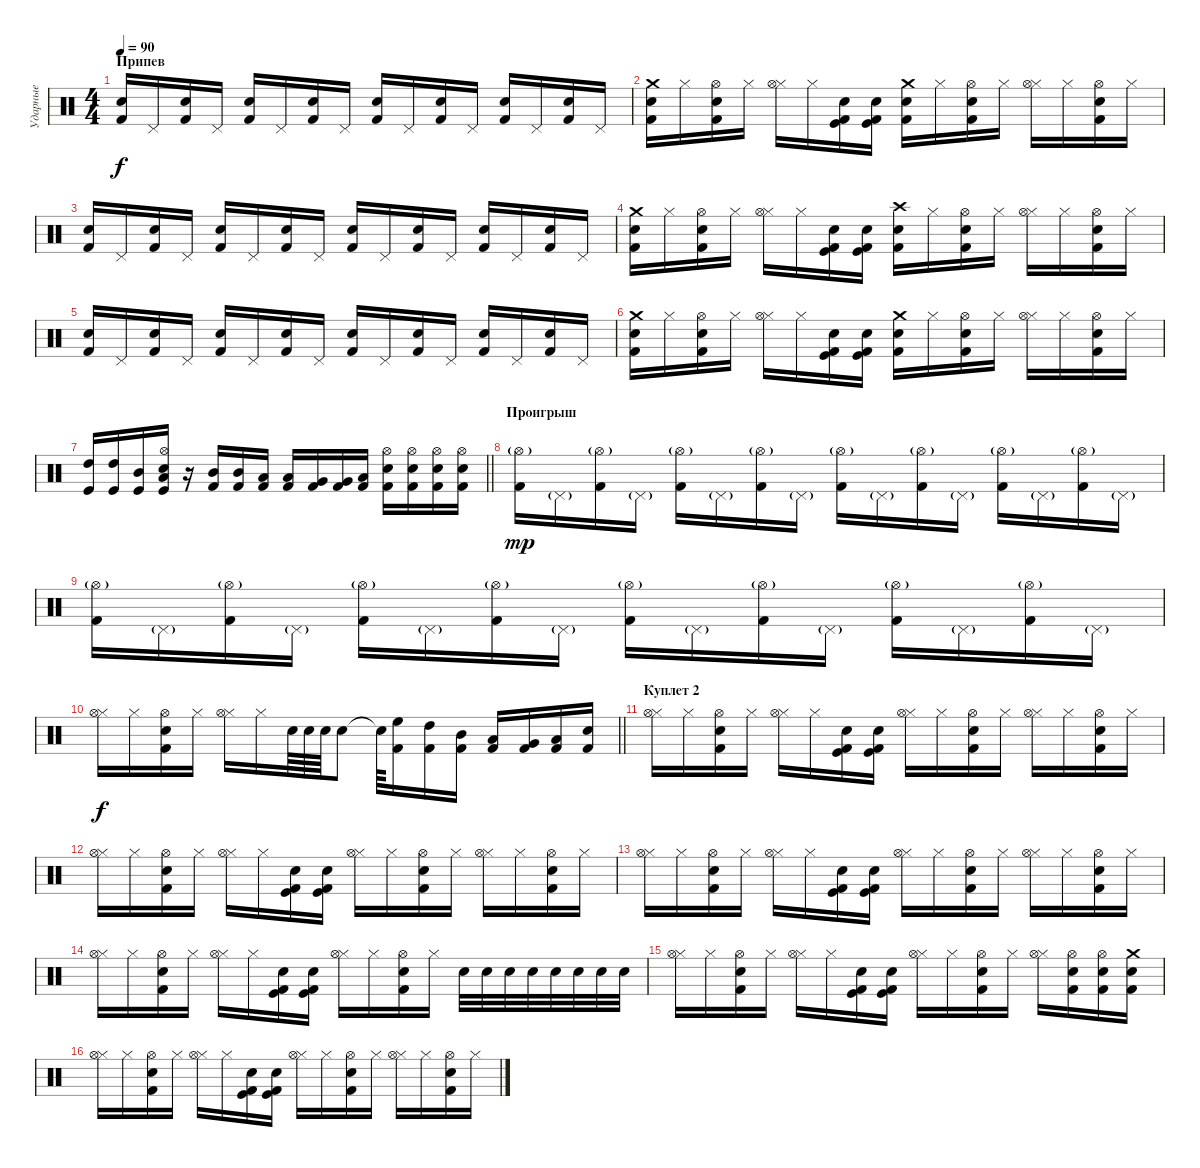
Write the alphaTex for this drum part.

\track ("Ударные" "Ударные") {instrument percussion}
\staff {score}
\articulation defaults
\ts (4 4)
\section ("" "Припев")
\tempo 90
\clef neutral
\ks c
("Electric Snare (hit)" "Kick (hit) 2").16{dy f} "Pedal Hi-Hat (hit)".16 ("Electric Snare (hit)" "Kick (hit) 2").16 "Pedal Hi-Hat (hit)".16 ("Electric Snare (hit)" "Kick (hit) 2").16 "Pedal Hi-Hat (hit)".16 ("Electric Snare (hit)" "Kick (hit) 2").16 "Pedal Hi-Hat (hit)".16 ("Electric Snare (hit)" "Kick (hit) 2").16 "Pedal Hi-Hat (hit)".16 ("Electric Snare (hit)" "Kick (hit) 2").16 "Pedal Hi-Hat (hit)".16 ("Electric Snare (hit)" "Kick (hit) 2").16 "Pedal Hi-Hat (hit)".16 ("Electric Snare (hit)" "Kick (hit) 2").16 "Pedal Hi-Hat (hit)".16 |
("Crash medium (hit)" "Kick (hit) 2" "Snare (hit) 2").16 "Hi-Hat (closed)".16 ("Snare (hit) 2" "Hi-Hat (open)" "Kick (hit) 2").16 "Hi-Hat (closed)".16 ("Hi-Hat (closed)" "Hi-Hat (open)").16 "Hi-Hat (closed)".16 ("Snare (hit) 2" "Kick (hit)" "Kick (hit) 2").16 ("Snare (hit) 2" "Kick (hit)" "Kick (hit) 2").16 ("Crash medium (hit)" "Kick (hit) 2" "Snare (hit) 2").16 "Hi-Hat (closed)".16 ("Snare (hit) 2" "Kick (hit) 2" "Hi-Hat (open)").16 "Hi-Hat (closed)".16 ("Hi-Hat (closed)" "Hi-Hat (open)").16 "Hi-Hat (closed)".16 ("Snare (hit) 2" "Kick (hit) 2" "Hi-Hat (open)").16 "Hi-Hat (closed)".16 |
("Electric Snare (hit)" "Kick (hit) 2").16 "Pedal Hi-Hat (hit)".16 ("Electric Snare (hit)" "Kick (hit) 2").16 "Pedal Hi-Hat (hit)".16 ("Electric Snare (hit)" "Kick (hit) 2").16 "Pedal Hi-Hat (hit)".16 ("Electric Snare (hit)" "Kick (hit) 2").16 "Pedal Hi-Hat (hit)".16 ("Electric Snare (hit)" "Kick (hit) 2").16 "Pedal Hi-Hat (hit)".16 ("Electric Snare (hit)" "Kick (hit) 2").16 "Pedal Hi-Hat (hit)".16 ("Electric Snare (hit)" "Kick (hit) 2").16 "Pedal Hi-Hat (hit)".16 ("Electric Snare (hit)" "Kick (hit) 2").16 "Pedal Hi-Hat (hit)".16 |
("Crash medium (hit)" "Kick (hit) 2" "Snare (hit) 2").16 "Hi-Hat (closed)".16 ("Snare (hit) 2" "Hi-Hat (open)" "Kick (hit) 2").16 "Hi-Hat (closed)".16 ("Hi-Hat (closed)" "Hi-Hat (open)").16 "Hi-Hat (closed)".16 ("Snare (hit) 2" "Kick (hit)" "Kick (hit) 2").16 ("Snare (hit) 2" "Kick (hit)" "Kick (hit) 2").16 ("Crash high (hit)" "Kick (hit) 2" "Snare (hit) 2").16 "Hi-Hat (closed)".16 ("Snare (hit) 2" "Kick (hit) 2" "Hi-Hat (open)").16 "Hi-Hat (closed)".16 ("Hi-Hat (closed)" "Hi-Hat (open)").16 "Hi-Hat (closed)".16 ("Snare (hit) 2" "Kick (hit) 2" "Hi-Hat (open)").16 "Hi-Hat (closed)".16 |
("Electric Snare (hit)" "Kick (hit) 2").16 "Pedal Hi-Hat (hit)".16 ("Electric Snare (hit)" "Kick (hit) 2").16 "Pedal Hi-Hat (hit)".16 ("Electric Snare (hit)" "Kick (hit) 2").16 "Pedal Hi-Hat (hit)".16 ("Electric Snare (hit)" "Kick (hit) 2").16 "Pedal Hi-Hat (hit)".16 ("Electric Snare (hit)" "Kick (hit) 2").16 "Pedal Hi-Hat (hit)".16 ("Electric Snare (hit)" "Kick (hit) 2").16 "Pedal Hi-Hat (hit)".16 ("Electric Snare (hit)" "Kick (hit) 2").16 "Pedal Hi-Hat (hit)".16 ("Electric Snare (hit)" "Kick (hit) 2").16 "Pedal Hi-Hat (hit)".16 |
("Crash medium (hit)" "Kick (hit) 2" "Snare (hit) 2").16 "Hi-Hat (closed)".16 ("Snare (hit) 2" "Hi-Hat (open)" "Kick (hit) 2").16 "Hi-Hat (closed)".16 ("Hi-Hat (closed)" "Hi-Hat (open)").16 "Hi-Hat (closed)".16 ("Snare (hit) 2" "Kick (hit)" "Kick (hit) 2").16 ("Snare (hit) 2" "Kick (hit)" "Kick (hit) 2").16 ("Crash medium (hit)" "Kick (hit) 2" "Snare (hit) 2").16 "Hi-Hat (closed)".16 ("Snare (hit) 2" "Kick (hit) 2" "Hi-Hat (open)").16 "Hi-Hat (closed)".16 ("Hi-Hat (closed)" "Hi-Hat (open)").16 "Hi-Hat (closed)".16 ("Snare (hit) 2" "Kick (hit) 2" "Hi-Hat (open)").16 "Hi-Hat (closed)".16 |
\barLineRight lightlight
("High Tom (hit)" "Kick (hit)").16 ("High Tom (hit)" "Kick (hit)").16 ("Mid Tom (hit)" "Kick (hit)").16 ("Hi-Hat (open)" "Low Tom (hit)" "Kick (hit)" "Electric Snare (hit)").16 r.16 ("Mid Tom (hit)" "Kick (hit) 2").16 ("Mid Tom (hit)" "Kick (hit) 2").16 ("Low Tom (hit)" "Kick (hit) 2").16 ("Low Tom (hit)" "Kick (hit) 2").16 ("Very Low Tom (hit)" "Kick (hit) 2").16 ("Very Low Tom (hit)" "Kick (hit) 2").16 ("Low Floor Tom (hit)" "Kick (hit) 2").16 ("Hi-Hat (open)" "Kick (hit) 2" "Snare (hit) 2").16 ("Hi-Hat (open)" "Kick (hit) 2" "Snare (hit) 2").16 ("Hi-Hat (open)" "Kick (hit) 2" "Snare (hit) 2").16 ("Hi-Hat (open)" "Kick (hit) 2" "Snare (hit) 2").16 |
\section ("" "Проигрыш")
("Hi-Hat (open)"{g} "Kick (hit) 2").16{dy mp} "Pedal Hi-Hat (hit)"{g}.16 ("Hi-Hat (open)"{g} "Kick (hit) 2").16 "Pedal Hi-Hat (hit)"{g}.16 ("Hi-Hat (open)"{g} "Kick (hit) 2").16 "Pedal Hi-Hat (hit)"{g}.16 ("Hi-Hat (open)"{g} "Kick (hit) 2").16 "Pedal Hi-Hat (hit)"{g}.16 ("Hi-Hat (open)"{g} "Kick (hit) 2").16 "Pedal Hi-Hat (hit)"{g}.16 ("Hi-Hat (open)"{g} "Kick (hit) 2").16 "Pedal Hi-Hat (hit)"{g}.16 ("Hi-Hat (open)"{g} "Kick (hit) 2").16 "Pedal Hi-Hat (hit)"{g}.16 ("Hi-Hat (open)"{g} "Kick (hit) 2").16 "Pedal Hi-Hat (hit)"{g}.16 |
("Hi-Hat (open)"{g} "Kick (hit) 2").16 "Pedal Hi-Hat (hit)"{g}.16 ("Hi-Hat (open)"{g} "Kick (hit) 2").16 "Pedal Hi-Hat (hit)"{g}.16 ("Hi-Hat (open)"{g} "Kick (hit) 2").16 "Pedal Hi-Hat (hit)"{g}.16 ("Hi-Hat (open)"{g} "Kick (hit) 2").16 "Pedal Hi-Hat (hit)"{g}.16 ("Hi-Hat (open)"{g} "Kick (hit) 2").16 "Pedal Hi-Hat (hit)"{g}.16 ("Hi-Hat (open)"{g} "Kick (hit) 2").16 "Pedal Hi-Hat (hit)"{g}.16 ("Hi-Hat (open)"{g} "Kick (hit) 2").16 "Pedal Hi-Hat (hit)"{g}.16 ("Hi-Hat (open)"{g} "Kick (hit) 2").16 "Pedal Hi-Hat (hit)"{g}.16 |
\barLineRight lightlight
("Hi-Hat (closed)" "Hi-Hat (open)").16{dy f} "Hi-Hat (closed)".16 ("Snare (hit) 2" "Hi-Hat (open)" "Kick (hit) 2").16 "Hi-Hat (closed)".16 ("Hi-Hat (closed)" "Hi-Hat (open)").16 "Hi-Hat (closed)".16 "Snare (hit) 2".64 "Snare (hit) 2".64 "Snare (hit) 2".64 "Snare (hit) 2".8 "Snare (hit) 2"{t}.64 ("High Floor Tom (hit)" "Kick (hit) 2").16 ("High Tom (hit)" "Kick (hit) 2").16 ("Mid Tom (hit)" "Kick (hit) 2").16 ("Low Tom (hit)" "Kick (hit) 2").16 ("Very Low Tom (hit)" "Kick (hit) 2").16 ("Kick (hit) 2" "Low Floor Tom (hit)").16 ("Kick (hit) 2" "Electric Snare (hit)").16 |
\section ("" "Куплет 2")
("Hi-Hat (closed)" "Hi-Hat (open)").16 "Hi-Hat (closed)".16 ("Snare (hit) 2" "Hi-Hat (open)" "Kick (hit) 2").16 "Hi-Hat (closed)".16 ("Hi-Hat (closed)" "Hi-Hat (open)").16 "Hi-Hat (closed)".16 ("Snare (hit) 2" "Kick (hit)" "Kick (hit) 2").16 ("Snare (hit) 2" "Kick (hit)" "Kick (hit) 2").16 ("Hi-Hat (closed)" "Hi-Hat (open)").16 "Hi-Hat (closed)".16 ("Snare (hit) 2" "Kick (hit) 2" "Hi-Hat (open)").16 "Hi-Hat (closed)".16 ("Hi-Hat (closed)" "Hi-Hat (open)").16 "Hi-Hat (closed)".16 ("Snare (hit) 2" "Kick (hit) 2" "Hi-Hat (open)").16 "Hi-Hat (closed)".16 |
("Hi-Hat (closed)" "Hi-Hat (open)").16 "Hi-Hat (closed)".16 ("Snare (hit) 2" "Hi-Hat (open)" "Kick (hit) 2").16 "Hi-Hat (closed)".16 ("Hi-Hat (closed)" "Hi-Hat (open)").16 "Hi-Hat (closed)".16 ("Snare (hit) 2" "Kick (hit)" "Kick (hit) 2").16 ("Snare (hit) 2" "Kick (hit)" "Kick (hit) 2").16 ("Hi-Hat (closed)" "Hi-Hat (open)").16 "Hi-Hat (closed)".16 ("Snare (hit) 2" "Kick (hit) 2" "Hi-Hat (open)").16 "Hi-Hat (closed)".16 ("Hi-Hat (closed)" "Hi-Hat (open)").16 "Hi-Hat (closed)".16 ("Snare (hit) 2" "Kick (hit) 2" "Hi-Hat (open)").16 "Hi-Hat (closed)".16 |
("Hi-Hat (closed)" "Hi-Hat (open)").16 "Hi-Hat (closed)".16 ("Snare (hit) 2" "Hi-Hat (open)" "Kick (hit) 2").16 "Hi-Hat (closed)".16 ("Hi-Hat (closed)" "Hi-Hat (open)").16 "Hi-Hat (closed)".16 ("Snare (hit) 2" "Kick (hit)" "Kick (hit) 2").16 ("Snare (hit) 2" "Kick (hit)" "Kick (hit) 2").16 ("Hi-Hat (closed)" "Hi-Hat (open)").16 "Hi-Hat (closed)".16 ("Snare (hit) 2" "Kick (hit) 2" "Hi-Hat (open)").16 "Hi-Hat (closed)".16 ("Hi-Hat (closed)" "Hi-Hat (open)").16 "Hi-Hat (closed)".16 ("Snare (hit) 2" "Kick (hit) 2" "Hi-Hat (open)").16 "Hi-Hat (closed)".16 |
("Hi-Hat (closed)" "Hi-Hat (open)").16 "Hi-Hat (closed)".16 ("Snare (hit) 2" "Hi-Hat (open)" "Kick (hit) 2").16 "Hi-Hat (closed)".16 ("Hi-Hat (closed)" "Hi-Hat (open)").16 "Hi-Hat (closed)".16 ("Snare (hit) 2" "Kick (hit)" "Kick (hit) 2").16 ("Snare (hit) 2" "Kick (hit)" "Kick (hit) 2").16 ("Hi-Hat (closed)" "Hi-Hat (open)").16 "Hi-Hat (closed)".16 ("Snare (hit) 2" "Kick (hit) 2" "Hi-Hat (open)").16 "Hi-Hat (closed)".16 "Electric Snare (hit)".32 "Electric Snare (hit)".32 "Electric Snare (hit)".32 "Electric Snare (hit)".32 "Electric Snare (hit)".32 "Electric Snare (hit)".32 "Electric Snare (hit)".32 "Electric Snare (hit)".32 |
("Hi-Hat (closed)" "Hi-Hat (open)").16 "Hi-Hat (closed)".16 ("Snare (hit) 2" "Hi-Hat (open)" "Kick (hit) 2").16 "Hi-Hat (closed)".16 ("Hi-Hat (closed)" "Hi-Hat (open)").16 "Hi-Hat (closed)".16 ("Snare (hit) 2" "Kick (hit)" "Kick (hit) 2").16 ("Snare (hit) 2" "Kick (hit)" "Kick (hit) 2").16 ("Hi-Hat (closed)" "Hi-Hat (open)").16 "Hi-Hat (closed)".16 ("Snare (hit) 2" "Kick (hit) 2" "Hi-Hat (open)").16 "Hi-Hat (closed)".16 ("Hi-Hat (closed)" "Hi-Hat (open)").16 ("Snare (hit) 2" "Kick (hit) 2" "Hi-Hat (open)").16 ("Snare (hit) 2" "Kick (hit) 2" "Hi-Hat (open)").16 ("Snare (hit) 2" "Kick (hit) 2" "Crash medium (hit)").16 |
("Hi-Hat (closed)" "Hi-Hat (open)").16 "Hi-Hat (closed)".16 ("Snare (hit) 2" "Hi-Hat (open)" "Kick (hit) 2").16 "Hi-Hat (closed)".16 ("Hi-Hat (closed)" "Hi-Hat (open)").16 "Hi-Hat (closed)".16 ("Snare (hit) 2" "Kick (hit)" "Kick (hit) 2").16 ("Snare (hit) 2" "Kick (hit)" "Kick (hit) 2").16 ("Hi-Hat (closed)" "Hi-Hat (open)").16 "Hi-Hat (closed)".16 ("Snare (hit) 2" "Kick (hit) 2" "Hi-Hat (open)").16 "Hi-Hat (closed)".16 ("Hi-Hat (closed)" "Hi-Hat (open)").16 "Hi-Hat (closed)".16 ("Snare (hit) 2" "Kick (hit) 2" "Hi-Hat (open)").16 "Hi-Hat (closed)".16
